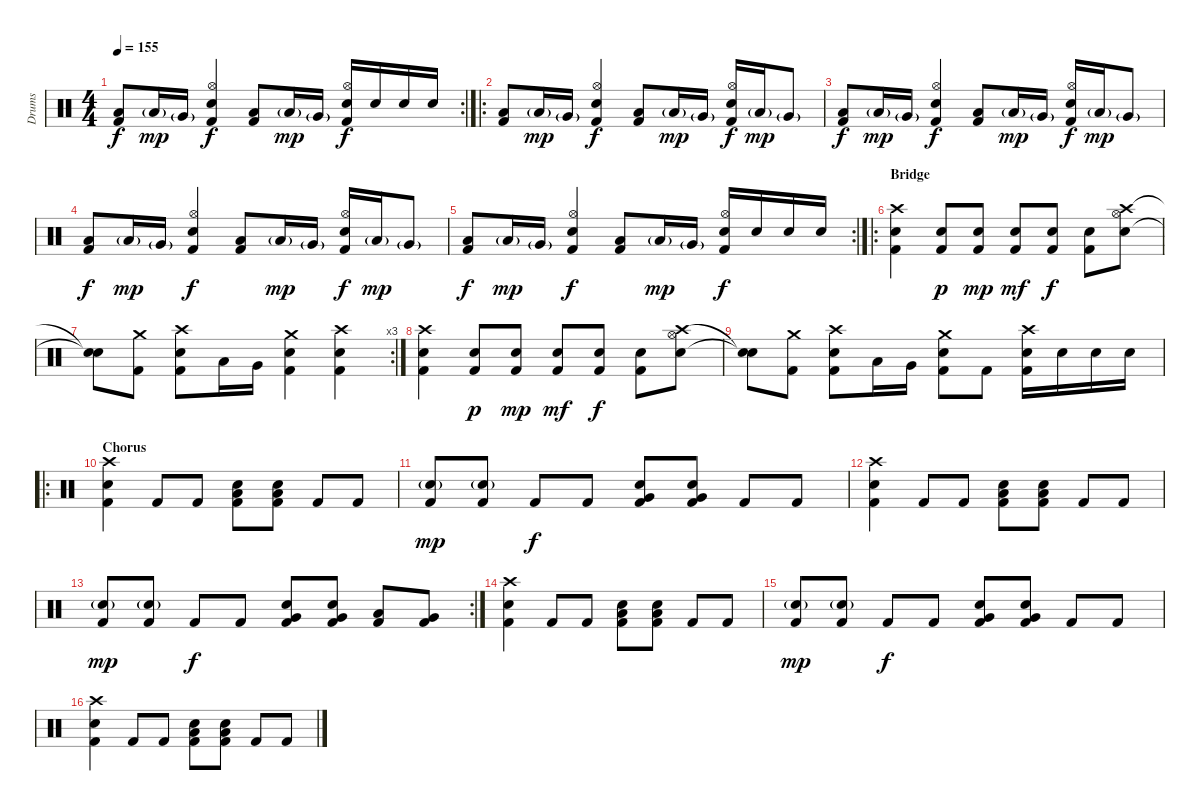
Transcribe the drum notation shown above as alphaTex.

\track ("Drums" "Drums") {instrument percussion}
\staff {score}
\articulation defaults
\rc 2
\ts (4 4)
\tempo 155
\clef neutral
\ks c
("Low Tom (hit)" "Kick (hit) 2").8{dy f} "Low Tom (hit)"{g}.16{dy mp} "Very Low Tom (hit)"{g}.16 ("Hi-Hat (open)" "Electric Snare (hit)" "Kick (hit) 2").4{dy f} ("Low Tom (hit)" "Kick (hit) 2").8 "Low Tom (hit)"{g}.16{dy mp} "Very Low Tom (hit)"{g}.16 ("Hi-Hat (open)" "Electric Snare (hit)" "Kick (hit) 2").16{dy f} "Electric Snare (hit)".16 "Electric Snare (hit)".16 "Electric Snare (hit)".16 |
\ro
("Low Tom (hit)" "Kick (hit) 2").8 "Low Tom (hit)"{g}.16{dy mp} "Very Low Tom (hit)"{g}.16 ("Hi-Hat (open)" "Electric Snare (hit)" "Kick (hit) 2").4{dy f} ("Low Tom (hit)" "Kick (hit) 2").8 "Low Tom (hit)"{g}.16{dy mp} "Very Low Tom (hit)"{g}.16 ("Hi-Hat (open)" "Electric Snare (hit)" "Kick (hit) 2").16{dy f} "Low Tom (hit)"{g}.16{dy mp} "Very Low Tom (hit)"{g}.8 |
("Low Tom (hit)" "Kick (hit) 2").8{dy f} "Low Tom (hit)"{g}.16{dy mp} "Very Low Tom (hit)"{g}.16 ("Hi-Hat (open)" "Electric Snare (hit)" "Kick (hit) 2").4{dy f} ("Low Tom (hit)" "Kick (hit) 2").8 "Low Tom (hit)"{g}.16{dy mp} "Very Low Tom (hit)"{g}.16 ("Hi-Hat (open)" "Electric Snare (hit)" "Kick (hit) 2").16{dy f} "Low Tom (hit)"{g}.16{dy mp} "Very Low Tom (hit)"{g}.8 |
("Low Tom (hit)" "Kick (hit) 2").8{dy f} "Low Tom (hit)"{g}.16{dy mp} "Very Low Tom (hit)"{g}.16 ("Hi-Hat (open)" "Electric Snare (hit)" "Kick (hit) 2").4{dy f} ("Low Tom (hit)" "Kick (hit) 2").8 "Low Tom (hit)"{g}.16{dy mp} "Very Low Tom (hit)"{g}.16 ("Hi-Hat (open)" "Electric Snare (hit)" "Kick (hit) 2").16{dy f} "Low Tom (hit)"{g}.16{dy mp} "Very Low Tom (hit)"{g}.8 |
\rc 2
("Low Tom (hit)" "Kick (hit) 2").8{dy f} "Low Tom (hit)"{g}.16{dy mp} "Very Low Tom (hit)"{g}.16 ("Hi-Hat (open)" "Electric Snare (hit)" "Kick (hit) 2").4{dy f} ("Low Tom (hit)" "Kick (hit) 2").8 "Low Tom (hit)"{g}.16{dy mp} "Very Low Tom (hit)"{g}.16 ("Hi-Hat (open)" "Electric Snare (hit)" "Kick (hit) 2").16{dy f} "Electric Snare (hit)".16 "Electric Snare (hit)".16 "Electric Snare (hit)".16 |
\ro
\section ("" "Bridge")
("Crash high (hit)" "Electric Snare (hit)" "Kick (hit) 2").4 ("Electric Snare (hit)" "Kick (hit) 2").8{dy p} ("Electric Snare (hit)" "Kick (hit) 2").8{dy mp} ("Electric Snare (hit)" "Kick (hit) 2").8{dy mf} ("Electric Snare (hit)" "Kick (hit) 2").8{dy f} ("Electric Snare (hit)" "Kick (hit) 2").8 ("Crash high (hit)" "Electric Snare (hit)" "Hi-Hat (open)").8 |
\rc 3
("Snare (hit)"{t} "Snare (hit)"{t}).8 ("Crash medium (hit)" "Kick (hit) 2").8 ("Crash high (hit)" "Electric Snare (hit)" "Kick (hit) 2").8 "Low Tom (hit)".16 "Very Low Tom (hit)".16 ("Crash medium (hit)" "Electric Snare (hit)" "Kick (hit) 2").4 ("Crash high (hit)" "Electric Snare (hit)" "Kick (hit) 2").4 |
("Crash high (hit)" "Electric Snare (hit)" "Kick (hit) 2").4 ("Electric Snare (hit)" "Kick (hit) 2").8{dy p} ("Electric Snare (hit)" "Kick (hit) 2").8{dy mp} ("Electric Snare (hit)" "Kick (hit) 2").8{dy mf} ("Electric Snare (hit)" "Kick (hit) 2").8{dy f} ("Electric Snare (hit)" "Kick (hit) 2").8 ("Crash high (hit)" "Electric Snare (hit)" "Hi-Hat (open)").8 |
("Snare (hit)"{t} "Snare (hit)"{t}).8 ("Crash medium (hit)" "Kick (hit) 2").8 ("Crash high (hit)" "Electric Snare (hit)" "Kick (hit) 2").8 "Low Tom (hit)".16 "Very Low Tom (hit)".16 ("Crash medium (hit)" "Electric Snare (hit)" "Kick (hit) 2").8 "Kick (hit) 2".8 ("Crash high (hit)" "Electric Snare (hit)" "Kick (hit) 2").16 "Electric Snare (hit)".16 "Electric Snare (hit)".16 "Electric Snare (hit)".16 |
\ro
\section ("" "Chorus")
("Crash high (hit)" "Electric Snare (hit)" "Kick (hit) 2").4 "Kick (hit) 2".8 "Kick (hit) 2".8 ("Low Tom (hit)" "Electric Snare (hit)" "Kick (hit) 2").8 ("Low Tom (hit)" "Electric Snare (hit)" "Kick (hit) 2").8 "Kick (hit) 2".8 "Kick (hit) 2".8 |
("Electric Snare (hit)"{g} "Kick (hit) 2").8{dy mp} ("Electric Snare (hit)"{g} "Kick (hit) 2").8 "Kick (hit) 2".8{dy f} "Kick (hit) 2".8 ("Very Low Tom (hit)" "Electric Snare (hit)" "Kick (hit) 2").8 ("Very Low Tom (hit)" "Electric Snare (hit)" "Kick (hit) 2").8 "Kick (hit) 2".8 "Kick (hit) 2".8 |
("Crash high (hit)" "Electric Snare (hit)" "Kick (hit) 2").4 "Kick (hit) 2".8 "Kick (hit) 2".8 ("Low Tom (hit)" "Electric Snare (hit)" "Kick (hit) 2").8 ("Low Tom (hit)" "Electric Snare (hit)" "Kick (hit) 2").8 "Kick (hit) 2".8 "Kick (hit) 2".8 |
\rc 2
("Electric Snare (hit)"{g} "Kick (hit) 2").8{dy mp} ("Electric Snare (hit)"{g} "Kick (hit) 2").8 "Kick (hit) 2".8{dy f} "Kick (hit) 2".8 ("Very Low Tom (hit)" "Electric Snare (hit)" "Kick (hit) 2").8 ("Very Low Tom (hit)" "Electric Snare (hit)" "Kick (hit) 2").8 ("Low Tom (hit)" "Kick (hit) 2").8 ("Very Low Tom (hit)" "Kick (hit) 2").8 |
("Crash high (hit)" "Electric Snare (hit)" "Kick (hit) 2").4 "Kick (hit) 2".8 "Kick (hit) 2".8 ("Low Tom (hit)" "Electric Snare (hit)" "Kick (hit) 2").8 ("Low Tom (hit)" "Electric Snare (hit)" "Kick (hit) 2").8 "Kick (hit) 2".8 "Kick (hit) 2".8 |
("Electric Snare (hit)"{g} "Kick (hit) 2").8{dy mp} ("Electric Snare (hit)"{g} "Kick (hit) 2").8 "Kick (hit) 2".8{dy f} "Kick (hit) 2".8 ("Very Low Tom (hit)" "Electric Snare (hit)" "Kick (hit) 2").8 ("Very Low Tom (hit)" "Electric Snare (hit)" "Kick (hit) 2").8 "Kick (hit) 2".8 "Kick (hit) 2".8 |
("Crash high (hit)" "Electric Snare (hit)" "Kick (hit) 2").4 "Kick (hit) 2".8 "Kick (hit) 2".8 ("Low Tom (hit)" "Electric Snare (hit)" "Kick (hit) 2").8 ("Low Tom (hit)" "Electric Snare (hit)" "Kick (hit) 2").8 "Kick (hit) 2".8 "Kick (hit) 2".8
